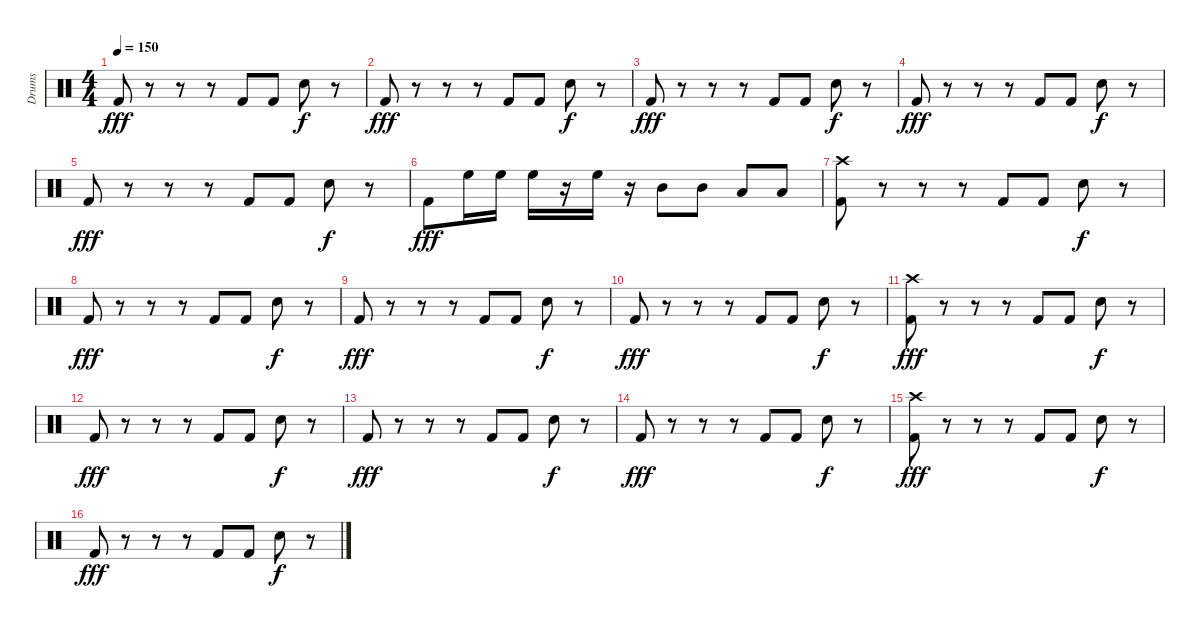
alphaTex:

\track ("Drums" "Drums") {instrument percussion}
\staff {score}
\articulation defaults
\ts (4 4)
\tempo 150
\clef neutral
\ks c "Kick (hit) 2".8{dy fff}
r.8 r.8 r.8 "Kick (hit) 2".8 "Kick (hit) 2".8 "Snare (hit) 2".8{dy f} r.8 |
"Kick (hit) 2".8{dy fff} r.8 r.8 r.8 "Kick (hit) 2".8 "Kick (hit) 2".8 "Snare (hit) 2".8{dy f} r.8 |
"Kick (hit) 2".8{dy fff} r.8 r.8 r.8 "Kick (hit) 2".8 "Kick (hit) 2".8 "Snare (hit) 2".8{dy f} r.8 |
"Kick (hit) 2".8{dy fff} r.8 r.8 r.8 "Kick (hit) 2".8 "Kick (hit) 2".8 "Snare (hit) 2".8{dy f} r.8 |
"Kick (hit) 2".8{dy fff} r.8 r.8 r.8 "Kick (hit) 2".8 "Kick (hit) 2".8 "Snare (hit) 2".8{dy f} r.8 |
"Kick (hit) 2".8{dy fff} "High Floor Tom (hit)".16 "High Floor Tom (hit)".16 "High Floor Tom (hit)".16 r.16 "High Floor Tom (hit)".16 r.16 "Mid Tom (hit)".8 "Mid Tom (hit)".8 "Low Tom (hit)".8 "Low Tom (hit)".8 |
("Crash high (hit)" "Kick (hit) 2").8 r.8 r.8 r.8 "Kick (hit) 2".8 "Kick (hit) 2".8 "Snare (hit) 2".8{dy f} r.8 |
"Kick (hit) 2".8{dy fff} r.8 r.8 r.8 "Kick (hit) 2".8 "Kick (hit) 2".8 "Snare (hit) 2".8{dy f} r.8 |
"Kick (hit) 2".8{dy fff} r.8 r.8 r.8 "Kick (hit) 2".8 "Kick (hit) 2".8 "Snare (hit) 2".8{dy f} r.8 |
"Kick (hit) 2".8{dy fff} r.8 r.8 r.8 "Kick (hit) 2".8 "Kick (hit) 2".8 "Snare (hit) 2".8{dy f} r.8 |
("Crash high (hit)" "Kick (hit) 2").8{dy fff} r.8 r.8 r.8 "Kick (hit) 2".8 "Kick (hit) 2".8 "Snare (hit) 2".8{dy f} r.8 |
"Kick (hit) 2".8{dy fff} r.8 r.8 r.8 "Kick (hit) 2".8 "Kick (hit) 2".8 "Snare (hit) 2".8{dy f} r.8 |
"Kick (hit) 2".8{dy fff} r.8 r.8 r.8 "Kick (hit) 2".8 "Kick (hit) 2".8 "Snare (hit) 2".8{dy f} r.8 |
"Kick (hit) 2".8{dy fff} r.8 r.8 r.8 "Kick (hit) 2".8 "Kick (hit) 2".8 "Snare (hit) 2".8{dy f} r.8 |
("Crash high (hit)" "Kick (hit) 2").8{dy fff} r.8 r.8 r.8 "Kick (hit) 2".8 "Kick (hit) 2".8 "Snare (hit) 2".8{dy f} r.8 |
"Kick (hit) 2".8{dy fff} r.8 r.8 r.8 "Kick (hit) 2".8 "Kick (hit) 2".8 "Snare (hit) 2".8{dy f} r.8
